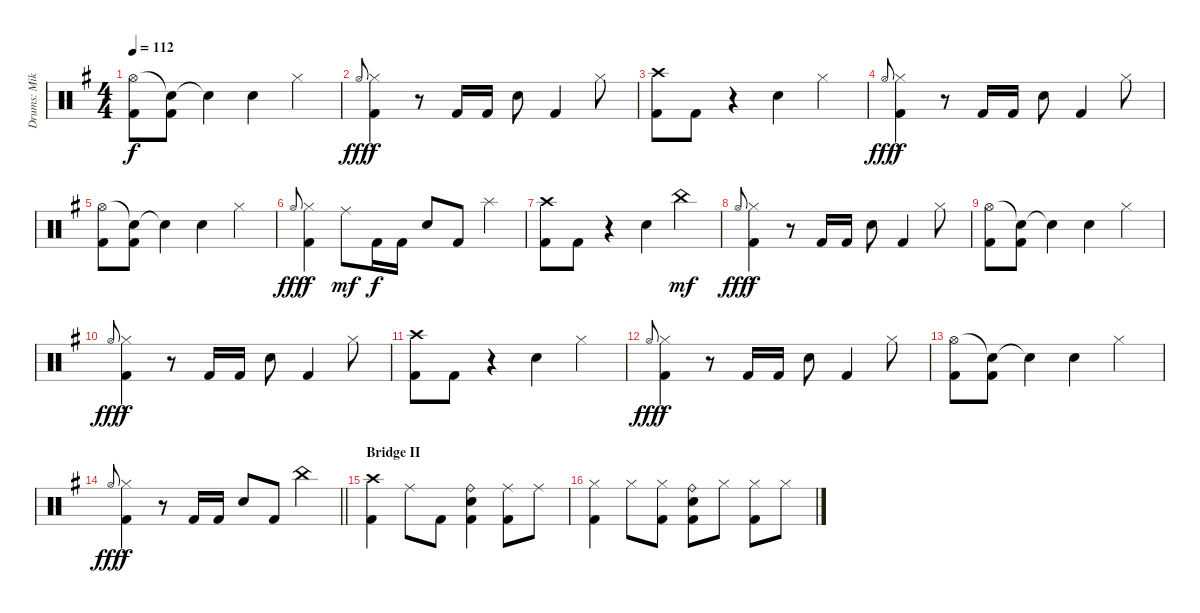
\track ("Drums: Mike" "Drums: Mik") {instrument percussion}
\staff {score}
\articulation defaults
\ts (4 4)
\tempo 112
\clef neutral
\ks g
("Hi-Hat (open)" "Kick (hit) 2").8{dy f} ("Snare (hit)"{t} "Kick (hit) 2").8 "Snare (hit)"{t}.4 "Electric Snare (hit)".4 "Hi-Hat (closed)".4 |
"Hi-Hat (open)".8{gr onbeat dy fff} ("Hi-Hat (closed)" "Kick (hit) 2").4{dy f} r.8 "Kick (hit) 2".16 "Kick (hit) 2".16 "Electric Snare (hit)".8 "Kick (hit) 2".4 "Hi-Hat (closed)".8 |
("Crash high (hit)" "Kick (hit) 2").8 "Kick (hit) 2".8 r.4 "Electric Snare (hit)".4 "Hi-Hat (closed)".4 |
"Hi-Hat (open)".8{gr onbeat dy fff} ("Hi-Hat (closed)" "Kick (hit) 2").4{dy f} r.8 "Kick (hit) 2".16 "Kick (hit) 2".16 "Electric Snare (hit)".8 "Kick (hit) 2".4 "Hi-Hat (closed)".8 |
("Hi-Hat (open)" "Kick (hit) 2").8 ("Snare (hit)"{t} "Kick (hit) 2").8 "Snare (hit)"{t}.4 "Electric Snare (hit)".4 "Hi-Hat (closed)".4 |
"Hi-Hat (open)".8{gr onbeat dy fff} ("Hi-Hat (closed)" "Kick (hit) 2").4{dy f} "Ride (middle)".8{dy mf} "Kick (hit) 2".16{dy f} "Kick (hit) 2".16 "Electric Snare (hit)".8 "Kick (hit) 2".8 "Splash (hit)".4 |
("Crash high (hit)" "Kick (hit) 2").8 "Kick (hit) 2".8 r.4 "Electric Snare (hit)".4 "China (hit)".4{dy mf} |
"Hi-Hat (open)".8{gr onbeat dy fff} ("Hi-Hat (closed)" "Kick (hit) 2").4{dy f} r.8 "Kick (hit) 2".16 "Kick (hit) 2".16 "Electric Snare (hit)".8 "Kick (hit) 2".4 "Hi-Hat (closed)".8 |
("Hi-Hat (open)" "Kick (hit) 2").8 ("Snare (hit)"{t} "Kick (hit) 2").8 "Snare (hit)"{t}.4 "Electric Snare (hit)".4 "Hi-Hat (closed)".4 |
"Hi-Hat (open)".8{gr onbeat dy fff} ("Hi-Hat (closed)" "Kick (hit) 2").4{dy f} r.8 "Kick (hit) 2".16 "Kick (hit) 2".16 "Electric Snare (hit)".8 "Kick (hit) 2".4 "Hi-Hat (closed)".8 |
("Crash high (hit)" "Kick (hit) 2").8 "Kick (hit) 2".8 r.4 "Electric Snare (hit)".4 "Hi-Hat (closed)".4 |
"Hi-Hat (open)".8{gr onbeat dy fff} ("Hi-Hat (closed)" "Kick (hit) 2").4{dy f} r.8 "Kick (hit) 2".16 "Kick (hit) 2".16 "Electric Snare (hit)".8 "Kick (hit) 2".4 "Hi-Hat (closed)".8 |
("Hi-Hat (open)" "Kick (hit) 2").8 ("Snare (hit)"{t} "Kick (hit) 2").8 "Snare (hit)"{t}.4 "Electric Snare (hit)".4 "Hi-Hat (closed)".4 |
\barLineRight lightlight "Hi-Hat (open)".8{gr onbeat dy fff}
("Hi-Hat (closed)" "Kick (hit) 2").4{dy f} r.8 "Kick (hit) 2".16 "Kick (hit) 2".16 "Electric Snare (hit)".8 "Kick (hit) 2".8 "China (hit)".4 |
\section ("" "Bridge II")
("Crash high (hit)" "Kick (hit) 2").4 "Ride (middle)".8 "Kick (hit) 2".8 ("Ride (bell)" "Electric Snare (hit)" "Kick (hit) 2").4 ("Ride (middle)" "Kick (hit) 2").8 "Ride (middle)".8 |
("Hi-Hat (closed)" "Kick (hit) 2").4 "Hi-Hat (closed)".8 ("Hi-Hat (closed)" "Kick (hit) 2").8 ("Ride (bell)" "Electric Snare (hit)" "Kick (hit) 2").8 "Hi-Hat (closed)".8 ("Hi-Hat (closed)" "Kick (hit) 2").8 "Hi-Hat (closed)".8
